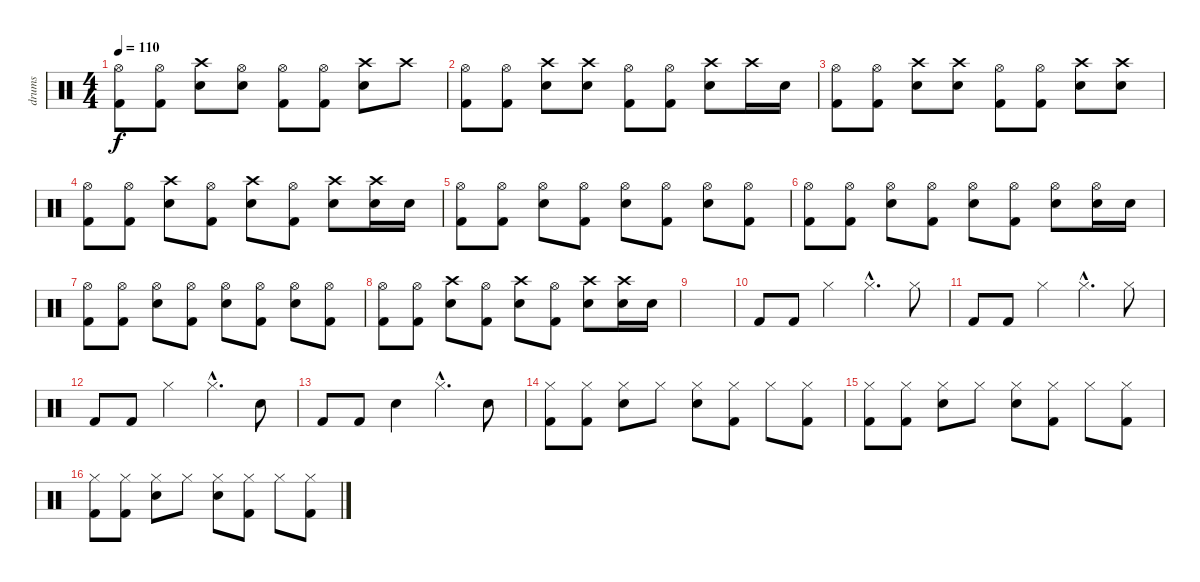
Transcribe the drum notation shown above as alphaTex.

\track ("drums" "drums") {instrument percussion}
\staff {score}
\articulation defaults
\ts (4 4)
\tempo 110
\clef neutral
\ks c
("Hi-Hat (open)" "Kick (hit) 2").8{dy f} ("Hi-Hat (open)" "Kick (hit) 2").8 ("Crash high (hit)" "Snare (hit) 2").8 ("Hi-Hat (open)" "Snare (hit) 2").8 ("Hi-Hat (open)" "Kick (hit) 2").8 ("Hi-Hat (open)" "Kick (hit) 2").8 ("Crash high (hit)" "Snare (hit) 2").8 "Crash high (hit)".8 |
("Hi-Hat (open)" "Kick (hit) 2").8 ("Hi-Hat (open)" "Kick (hit) 2").8 ("Crash high (hit)" "Snare (hit) 2").8 ("Crash high (hit)" "Snare (hit) 2").8 ("Hi-Hat (open)" "Kick (hit) 2").8 ("Hi-Hat (open)" "Kick (hit) 2").8 ("Crash high (hit)" "Snare (hit) 2").8 "Crash high (hit)".16 "Snare (hit) 2".16 |
("Hi-Hat (open)" "Kick (hit) 2").8 ("Hi-Hat (open)" "Kick (hit) 2").8 ("Crash high (hit)" "Snare (hit) 2").8 ("Crash high (hit)" "Snare (hit) 2").8 ("Hi-Hat (open)" "Kick (hit) 2").8 ("Hi-Hat (open)" "Kick (hit) 2").8 ("Crash high (hit)" "Snare (hit) 2").8 ("Crash high (hit)" "Snare (hit) 2").8 |
("Hi-Hat (open)" "Kick (hit) 2").8 ("Hi-Hat (open)" "Kick (hit) 2").8 ("Crash high (hit)" "Snare (hit) 2").8 ("Hi-Hat (open)" "Kick (hit) 2").8 ("Crash high (hit)" "Snare (hit) 2").8 ("Hi-Hat (open)" "Kick (hit) 2").8 ("Crash high (hit)" "Snare (hit) 2").8 ("Crash high (hit)" "Snare (hit) 2").16 "Snare (hit) 2".16 |
("Hi-Hat (open)" "Kick (hit) 2").8 ("Hi-Hat (open)" "Kick (hit) 2").8 ("Hi-Hat (open)" "Snare (hit) 2").8 ("Hi-Hat (open)" "Kick (hit) 2").8 ("Hi-Hat (open)" "Snare (hit) 2").8 ("Hi-Hat (open)" "Kick (hit) 2").8 ("Hi-Hat (open)" "Snare (hit) 2").8 ("Hi-Hat (open)" "Kick (hit) 2").8 |
("Hi-Hat (open)" "Kick (hit) 2").8 ("Hi-Hat (open)" "Kick (hit) 2").8 ("Hi-Hat (open)" "Snare (hit) 2").8 ("Hi-Hat (open)" "Kick (hit) 2").8 ("Hi-Hat (open)" "Snare (hit) 2").8 ("Hi-Hat (open)" "Kick (hit) 2").8 ("Hi-Hat (open)" "Snare (hit) 2").8 ("Hi-Hat (open)" "Snare (hit) 2").16 "Snare (hit) 2".16 |
("Hi-Hat (open)" "Kick (hit) 2").8 ("Hi-Hat (open)" "Kick (hit) 2").8 ("Hi-Hat (open)" "Snare (hit) 2").8 ("Hi-Hat (open)" "Kick (hit) 2").8 ("Hi-Hat (open)" "Snare (hit) 2").8 ("Hi-Hat (open)" "Kick (hit) 2").8 ("Hi-Hat (open)" "Snare (hit) 2").8 ("Hi-Hat (open)" "Kick (hit) 2").8 |
("Hi-Hat (open)" "Kick (hit) 2").8 ("Hi-Hat (open)" "Kick (hit) 2").8 ("Crash high (hit)" "Snare (hit) 2").8 ("Hi-Hat (open)" "Kick (hit) 2").8 ("Crash high (hit)" "Snare (hit) 2").8 ("Hi-Hat (open)" "Kick (hit) 2").8 ("Crash high (hit)" "Snare (hit) 2").8 ("Crash high (hit)" "Snare (hit) 2").16 "Snare (hit) 2".16 |
|
"Kick (hit) 2".8 "Kick (hit) 2".8 "Hi-Hat (closed)".4 "Hi-Hat (closed)"{hac}.4{d} "Hi-Hat (closed)".8 |
"Kick (hit) 2".8 "Kick (hit) 2".8 "Hi-Hat (closed)".4 "Hi-Hat (closed)"{hac}.4{d} "Hi-Hat (closed)".8 |
"Kick (hit) 2".8 "Kick (hit) 2".8 "Hi-Hat (closed)".4 "Hi-Hat (closed)"{hac}.4{d} "Snare (hit) 2".8 |
"Kick (hit) 2".8 "Kick (hit) 2".8 "Snare (hit) 2".4 "Hi-Hat (closed)"{hac}.4{d} "Snare (hit) 2".8 |
("Hi-Hat (closed)" "Kick (hit) 2").8 ("Hi-Hat (closed)" "Kick (hit) 2").8 ("Hi-Hat (closed)" "Snare (hit) 2").8 "Hi-Hat (closed)".8 ("Hi-Hat (closed)" "Snare (hit) 2").8 ("Hi-Hat (closed)" "Kick (hit) 2").8 "Hi-Hat (closed)".8 ("Hi-Hat (closed)" "Kick (hit) 2").8 |
("Hi-Hat (closed)" "Kick (hit) 2").8 ("Hi-Hat (closed)" "Kick (hit) 2").8 ("Hi-Hat (closed)" "Snare (hit) 2").8 "Hi-Hat (closed)".8 ("Hi-Hat (closed)" "Snare (hit) 2").8 ("Hi-Hat (closed)" "Kick (hit) 2").8 "Hi-Hat (closed)".8 ("Hi-Hat (closed)" "Kick (hit) 2").8 |
("Hi-Hat (closed)" "Kick (hit) 2").8 ("Hi-Hat (closed)" "Kick (hit) 2").8 ("Hi-Hat (closed)" "Snare (hit) 2").8 "Hi-Hat (closed)".8 ("Hi-Hat (closed)" "Snare (hit) 2").8 ("Hi-Hat (closed)" "Kick (hit) 2").8 "Hi-Hat (closed)".8 ("Hi-Hat (closed)" "Kick (hit) 2").8
